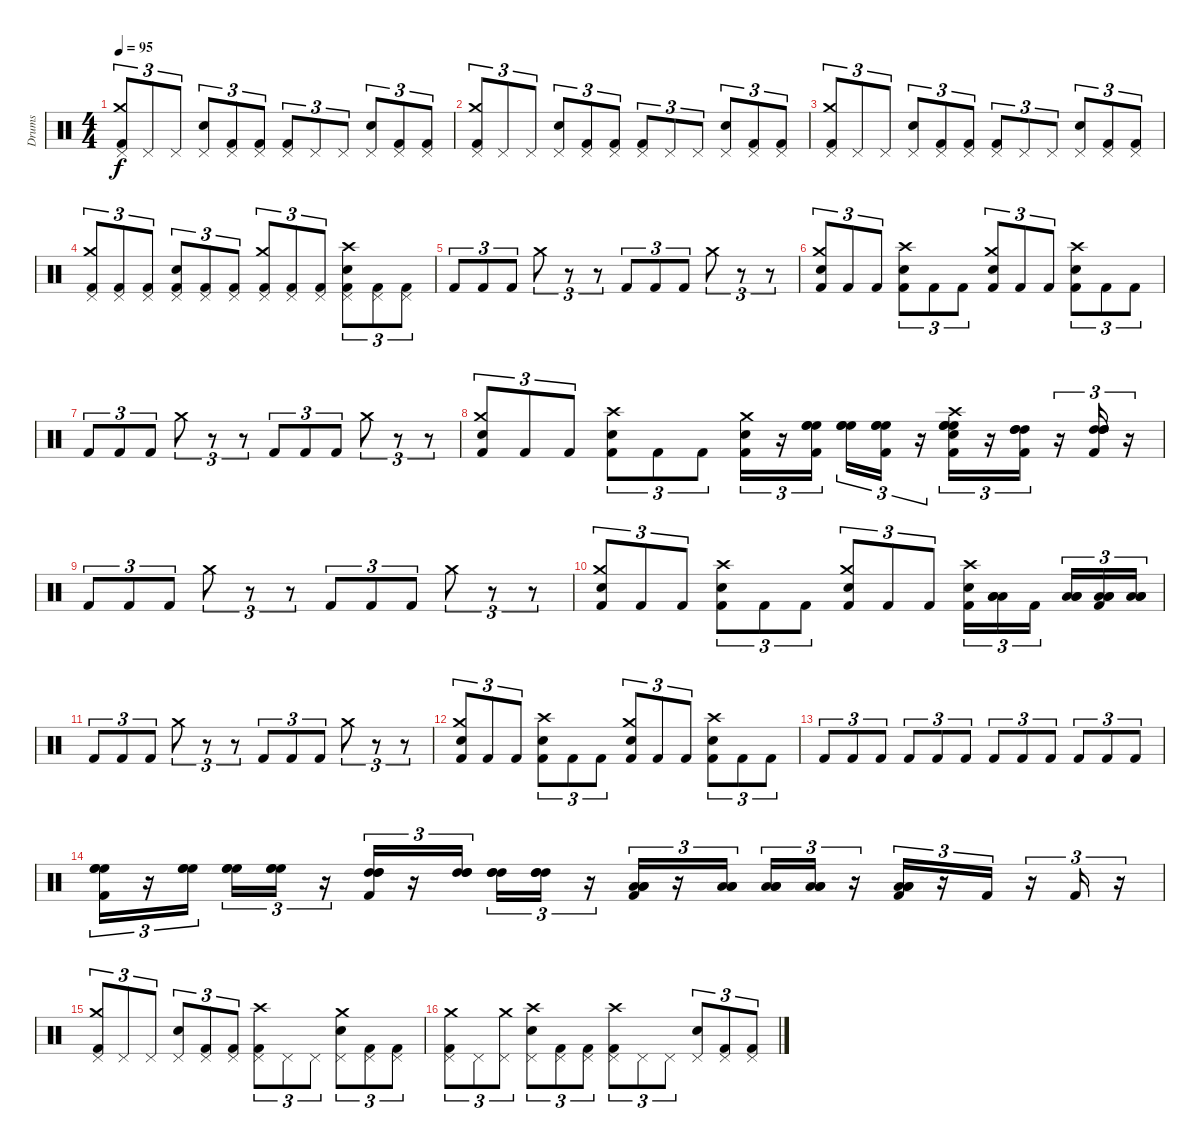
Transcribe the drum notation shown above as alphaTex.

\track ("Drums" "Drums") {instrument percussion}
\staff {score}
\articulation defaults
\ts (4 4)
\tempo 95
\clef neutral
\ks c
("Kick (hit) 2" "Crash medium (hit)" "Pedal Hi-Hat (hit)").8{tu (3 2) dy f} "Pedal Hi-Hat (hit)".8{tu (3 2)} "Pedal Hi-Hat (hit)".8{tu (3 2)} ("Snare (hit) 2" "Pedal Hi-Hat (hit)").8{tu (3 2)} ("Kick (hit) 2" "Pedal Hi-Hat (hit)").8{tu (3 2)} ("Kick (hit) 2" "Pedal Hi-Hat (hit)").8{tu (3 2)} ("Kick (hit) 2" "Pedal Hi-Hat (hit)").8{tu (3 2)} "Pedal Hi-Hat (hit)".8{tu (3 2)} "Pedal Hi-Hat (hit)".8{tu (3 2)} ("Snare (hit) 2" "Pedal Hi-Hat (hit)").8{tu (3 2)} ("Kick (hit) 2" "Pedal Hi-Hat (hit)").8{tu (3 2)} ("Kick (hit) 2" "Pedal Hi-Hat (hit)").8{tu (3 2)} |
("Kick (hit) 2" "Crash medium (hit)" "Pedal Hi-Hat (hit)").8{tu (3 2)} "Pedal Hi-Hat (hit)".8{tu (3 2)} "Pedal Hi-Hat (hit)".8{tu (3 2)} ("Snare (hit) 2" "Pedal Hi-Hat (hit)").8{tu (3 2)} ("Kick (hit) 2" "Pedal Hi-Hat (hit)").8{tu (3 2)} ("Kick (hit) 2" "Pedal Hi-Hat (hit)").8{tu (3 2)} ("Kick (hit) 2" "Pedal Hi-Hat (hit)").8{tu (3 2)} "Pedal Hi-Hat (hit)".8{tu (3 2)} "Pedal Hi-Hat (hit)".8{tu (3 2)} ("Snare (hit) 2" "Pedal Hi-Hat (hit)").8{tu (3 2)} ("Kick (hit) 2" "Pedal Hi-Hat (hit)").8{tu (3 2)} ("Kick (hit) 2" "Pedal Hi-Hat (hit)").8{tu (3 2)} |
("Kick (hit) 2" "Crash medium (hit)" "Pedal Hi-Hat (hit)").8{tu (3 2)} "Pedal Hi-Hat (hit)".8{tu (3 2)} "Pedal Hi-Hat (hit)".8{tu (3 2)} ("Snare (hit) 2" "Pedal Hi-Hat (hit)").8{tu (3 2)} ("Kick (hit) 2" "Pedal Hi-Hat (hit)").8{tu (3 2)} ("Kick (hit) 2" "Pedal Hi-Hat (hit)").8{tu (3 2)} ("Kick (hit) 2" "Pedal Hi-Hat (hit)").8{tu (3 2)} "Pedal Hi-Hat (hit)".8{tu (3 2)} "Pedal Hi-Hat (hit)".8{tu (3 2)} ("Snare (hit) 2" "Pedal Hi-Hat (hit)").8{tu (3 2)} ("Kick (hit) 2" "Pedal Hi-Hat (hit)").8{tu (3 2)} ("Kick (hit) 2" "Pedal Hi-Hat (hit)").8{tu (3 2)} |
("Kick (hit) 2" "Crash medium (hit)" "Pedal Hi-Hat (hit)").8{tu (3 2)} ("Kick (hit) 2" "Pedal Hi-Hat (hit)").8{tu (3 2)} ("Kick (hit) 2" "Pedal Hi-Hat (hit)").8{tu (3 2)} ("Kick (hit) 2" "Snare (hit) 2" "Pedal Hi-Hat (hit)").8{tu (3 2)} ("Kick (hit) 2" "Pedal Hi-Hat (hit)").8{tu (3 2)} ("Kick (hit) 2" "Pedal Hi-Hat (hit)").8{tu (3 2)} ("Kick (hit) 2" "Crash medium (hit)" "Pedal Hi-Hat (hit)").8{tu (3 2)} ("Kick (hit) 2" "Pedal Hi-Hat (hit)").8{tu (3 2)} ("Kick (hit) 2" "Pedal Hi-Hat (hit)").8{tu (3 2)} ("Kick (hit) 2" "Crash high (hit)" "Snare (hit) 2" "Pedal Hi-Hat (hit)").8{tu (3 2)} ("Kick (hit) 2" "Pedal Hi-Hat (hit)").8{tu (3 2)} ("Kick (hit) 2" "Pedal Hi-Hat (hit)").8{tu (3 2)} |
"Kick (hit) 2".8{tu (3 2)} "Kick (hit) 2".8{tu (3 2)} "Kick (hit) 2".8{tu (3 2)} "Crash medium (hit)".8{tu (3 2)} r.8{tu (3 2)} r.8{tu (3 2)} "Kick (hit) 2".8{tu (3 2)} "Kick (hit) 2".8{tu (3 2)} "Kick (hit) 2".8{tu (3 2)} "Crash medium (hit)".8{tu (3 2)} r.8{tu (3 2)} r.8{tu (3 2)} |
("Kick (hit) 2" "Crash medium (hit)" "Snare (hit) 2").8{tu (3 2)} "Kick (hit) 2".8{tu (3 2)} "Kick (hit) 2".8{tu (3 2)} ("Kick (hit) 2" "Crash high (hit)" "Snare (hit) 2").8{tu (3 2)} "Kick (hit) 2".8{tu (3 2)} "Kick (hit) 2".8{tu (3 2)} ("Kick (hit) 2" "Crash medium (hit)" "Snare (hit) 2").8{tu (3 2)} "Kick (hit) 2".8{tu (3 2)} "Kick (hit) 2".8{tu (3 2)} ("Kick (hit) 2" "Crash high (hit)" "Snare (hit) 2").8{tu (3 2)} "Kick (hit) 2".8{tu (3 2)} "Kick (hit) 2".8{tu (3 2)} |
"Kick (hit) 2".8{tu (3 2)} "Kick (hit) 2".8{tu (3 2)} "Kick (hit) 2".8{tu (3 2)} "Crash medium (hit)".8{tu (3 2)} r.8{tu (3 2)} r.8{tu (3 2)} "Kick (hit) 2".8{tu (3 2)} "Kick (hit) 2".8{tu (3 2)} "Kick (hit) 2".8{tu (3 2)} "Crash medium (hit)".8{tu (3 2)} r.8{tu (3 2)} r.8{tu (3 2)} |
("Kick (hit) 2" "Crash medium (hit)" "Snare (hit) 2").8{tu (3 2)} "Kick (hit) 2".8{tu (3 2)} "Kick (hit) 2".8{tu (3 2)} ("Kick (hit) 2" "Crash high (hit)" "Snare (hit) 2").8{tu (3 2)} "Kick (hit) 2".8{tu (3 2)} "Kick (hit) 2".8{tu (3 2)} ("Kick (hit) 2" "Crash medium (hit)" "Snare (hit) 2").16{tu (3 2)} r.16{tu (3 2)} ("Kick (hit) 2" "High Floor Tom (hit)" "High Floor Tom (hit)" "High Floor Tom (hit)").16{tu (3 2) beam splitsecondary} ("High Floor Tom (hit)" "High Floor Tom (hit)" "High Floor Tom (hit)").16{tu (3 2)} ("Kick (hit) 2" "High Floor Tom (hit)" "High Floor Tom (hit)" "High Floor Tom (hit)").16{tu (3 2)} r.16{tu (3 2)} ("Kick (hit) 2" "Crash high (hit)" "Snare (hit) 2" "High Floor Tom (hit)" "High Floor Tom (hit)" "High Floor Tom (hit)").16{tu (3 2)} r.16{tu (3 2)} ("Kick (hit) 2" "High Tom (hit)" "High Tom (hit)" "High Tom (hit)").16{tu (3 2)} r.16{tu (3 2)} ("Kick (hit) 2" "High Tom (hit)" "High Tom (hit)" "High Tom (hit)").16{tu (3 2)} r.16{tu (3 2)} |
"Kick (hit) 2".8{tu (3 2)} "Kick (hit) 2".8{tu (3 2)} "Kick (hit) 2".8{tu (3 2)} "Crash medium (hit)".8{tu (3 2)} r.8{tu (3 2)} r.8{tu (3 2)} "Kick (hit) 2".8{tu (3 2)} "Kick (hit) 2".8{tu (3 2)} "Kick (hit) 2".8{tu (3 2)} "Crash medium (hit)".8{tu (3 2)} r.8{tu (3 2)} r.8{tu (3 2)} |
("Kick (hit) 2" "Crash medium (hit)" "Snare (hit) 2").8{tu (3 2)} "Kick (hit) 2".8{tu (3 2)} "Kick (hit) 2".8{tu (3 2)} ("Kick (hit) 2" "Crash high (hit)" "Snare (hit) 2").8{tu (3 2)} "Kick (hit) 2".8{tu (3 2)} "Kick (hit) 2".8{tu (3 2)} ("Kick (hit) 2" "Crash medium (hit)" "Snare (hit) 2").8{tu (3 2)} "Kick (hit) 2".8{tu (3 2)} "Kick (hit) 2".8{tu (3 2)} ("Kick (hit) 2" "Crash high (hit)" "Snare (hit) 2").16{tu (3 2)} ("Low Tom (hit)" "Low Tom (hit)" "Low Tom (hit)").16{tu (3 2)} "Kick (hit) 2".16{tu (3 2) beam splitsecondary} ("Low Tom (hit)" "Low Tom (hit)" "Low Tom (hit)").16{tu (3 2)} ("Kick (hit) 2" "Low Tom (hit)" "Low Tom (hit)" "Low Tom (hit)").16{tu (3 2)} ("Low Floor Tom (hit)" "Low Floor Tom (hit)" "Low Floor Tom (hit)").16{tu (3 2)} |
"Kick (hit) 2".8{tu (3 2)} "Kick (hit) 2".8{tu (3 2)} "Kick (hit) 2".8{tu (3 2)} "Crash medium (hit)".8{tu (3 2)} r.8{tu (3 2)} r.8{tu (3 2)} "Kick (hit) 2".8{tu (3 2)} "Kick (hit) 2".8{tu (3 2)} "Kick (hit) 2".8{tu (3 2)} "Crash medium (hit)".8{tu (3 2)} r.8{tu (3 2)} r.8{tu (3 2)} |
("Kick (hit) 2" "Crash medium (hit)" "Snare (hit) 2").8{tu (3 2)} "Kick (hit) 2".8{tu (3 2)} "Kick (hit) 2".8{tu (3 2)} ("Kick (hit) 2" "Crash high (hit)" "Snare (hit) 2").8{tu (3 2)} "Kick (hit) 2".8{tu (3 2)} "Kick (hit) 2".8{tu (3 2)} ("Kick (hit) 2" "Crash medium (hit)" "Snare (hit) 2").8{tu (3 2)} "Kick (hit) 2".8{tu (3 2)} "Kick (hit) 2".8{tu (3 2)} ("Kick (hit) 2" "Crash high (hit)" "Snare (hit) 2").8{tu (3 2)} "Kick (hit) 2".8{tu (3 2)} "Kick (hit) 2".8{tu (3 2)} |
"Kick (hit) 2".8{tu (3 2)} "Kick (hit) 2".8{tu (3 2)} "Kick (hit) 2".8{tu (3 2)} "Kick (hit) 2".8{tu (3 2)} "Kick (hit) 2".8{tu (3 2)} "Kick (hit) 2".8{tu (3 2)} "Kick (hit) 2".8{tu (3 2)} "Kick (hit) 2".8{tu (3 2)} "Kick (hit) 2".8{tu (3 2)} "Kick (hit) 2".8{tu (3 2)} "Kick (hit) 2".8{tu (3 2)} "Kick (hit) 2".8{tu (3 2)} |
("Kick (hit) 2" "High Floor Tom (hit)" "High Floor Tom (hit)" "High Floor Tom (hit)").16{tu (3 2)} r.16{tu (3 2)} ("High Floor Tom (hit)" "High Floor Tom (hit)" "High Floor Tom (hit)").16{tu (3 2) beam splitsecondary} ("High Floor Tom (hit)" "High Floor Tom (hit)" "High Floor Tom (hit)").16{tu (3 2)} ("High Floor Tom (hit)" "High Floor Tom (hit)" "High Floor Tom (hit)").16{tu (3 2)} r.16{tu (3 2)} ("Kick (hit) 2" "High Tom (hit)" "High Tom (hit)" "High Tom (hit)").16{tu (3 2)} r.16{tu (3 2)} ("High Tom (hit)" "High Tom (hit)" "High Tom (hit)").16{tu (3 2) beam splitsecondary} ("High Tom (hit)" "High Tom (hit)" "High Tom (hit)").16{tu (3 2)} ("High Tom (hit)" "High Tom (hit)" "High Tom (hit)").16{tu (3 2)} r.16{tu (3 2)} ("Kick (hit) 2" "Low Tom (hit)" "Low Tom (hit)" "Low Tom (hit)").16{tu (3 2)} r.16{tu (3 2)} ("Low Tom (hit)" "Low Tom (hit)" "Low Tom (hit)").16{tu (3 2) beam splitsecondary} ("Low Tom (hit)" "Low Tom (hit)" "Low Tom (hit)").16{tu (3 2)} ("Low Tom (hit)" "Low Tom (hit)" "Low Tom (hit)").16{tu (3 2)} r.16{tu (3 2)} ("Kick (hit) 2" "Low Floor Tom (hit)" "Low Floor Tom (hit)" "Low Floor Tom (hit)").16{tu (3 2)} r.16{tu (3 2)} "Kick (hit) 2".16{tu (3 2)} r.16{tu (3 2)} "Kick (hit) 2".16{tu (3 2)} r.16{tu (3 2)} |
("Kick (hit) 2" "Crash medium (hit)" "Pedal Hi-Hat (hit)").8{tu (3 2)} "Pedal Hi-Hat (hit)".8{tu (3 2)} "Pedal Hi-Hat (hit)".8{tu (3 2)} ("Snare (hit) 2" "Pedal Hi-Hat (hit)").8{tu (3 2)} ("Kick (hit) 2" "Pedal Hi-Hat (hit)").8{tu (3 2)} ("Kick (hit) 2" "Pedal Hi-Hat (hit)").8{tu (3 2)} ("Kick (hit) 2" "Crash high (hit)" "Pedal Hi-Hat (hit)").8{tu (3 2)} "Pedal Hi-Hat (hit)".8{tu (3 2)} "Pedal Hi-Hat (hit)".8{tu (3 2)} ("Crash medium (hit)" "Snare (hit) 2" "Pedal Hi-Hat (hit)").8{tu (3 2)} ("Kick (hit) 2" "Pedal Hi-Hat (hit)").8{tu (3 2)} ("Kick (hit) 2" "Pedal Hi-Hat (hit)").8{tu (3 2)} |
("Kick (hit) 2" "Crash medium (hit)" "Pedal Hi-Hat (hit)").8{tu (3 2)} "Pedal Hi-Hat (hit)".8{tu (3 2)} ("Crash medium (hit)" "Pedal Hi-Hat (hit)").8{tu (3 2)} ("Crash high (hit)" "Snare (hit) 2" "Pedal Hi-Hat (hit)").8{tu (3 2)} ("Kick (hit) 2" "Pedal Hi-Hat (hit)").8{tu (3 2)} ("Kick (hit) 2" "Pedal Hi-Hat (hit)").8{tu (3 2)} ("Kick (hit) 2" "Crash high (hit)" "Pedal Hi-Hat (hit)").8{tu (3 2)} "Pedal Hi-Hat (hit)".8{tu (3 2)} "Pedal Hi-Hat (hit)".8{tu (3 2)} ("Snare (hit) 2" "Pedal Hi-Hat (hit)").8{tu (3 2)} ("Kick (hit) 2" "Pedal Hi-Hat (hit)").8{tu (3 2)} ("Kick (hit) 2" "Pedal Hi-Hat (hit)").8{tu (3 2)}
